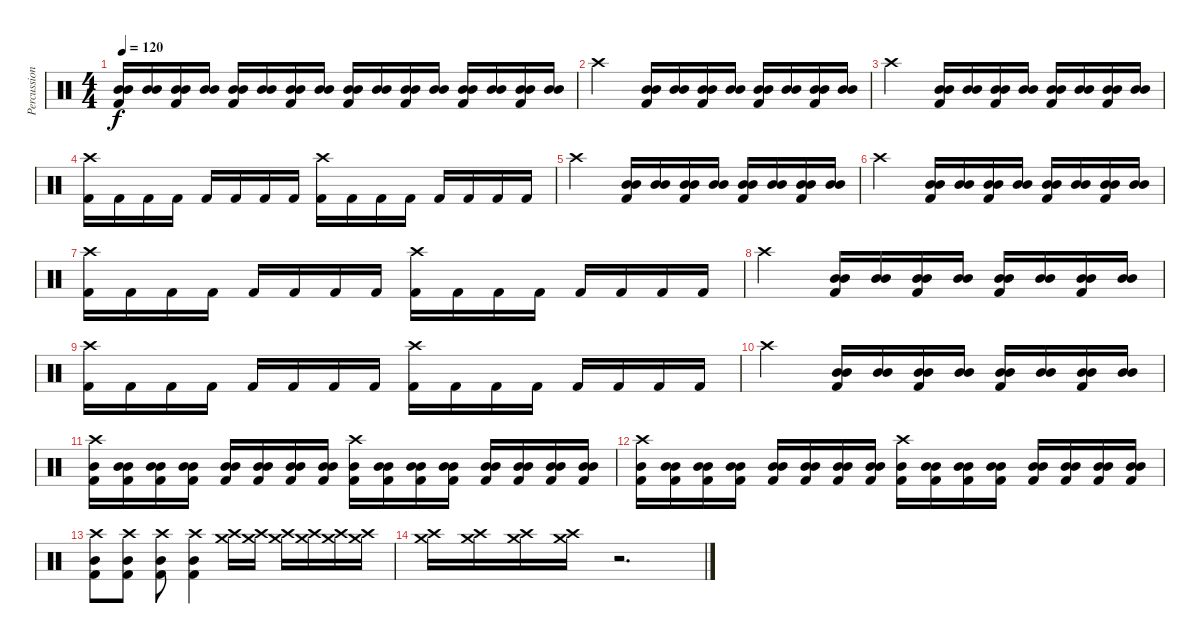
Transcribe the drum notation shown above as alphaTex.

\track ("Percussion" "Percussion") {instrument percussion}
\staff {score}
\articulation defaults
\ts (4 4)
\tempo 120
\clef neutral
\ks c
("Mid Tom (hit)" "Mid Tom (hit)" "Kick (hit) 2").16{dy f} ("Mid Tom (hit)" "Mid Tom (hit)").16 ("Mid Tom (hit)" "Mid Tom (hit)" "Kick (hit) 2").16 ("Mid Tom (hit)" "Mid Tom (hit)").16 ("Mid Tom (hit)" "Mid Tom (hit)" "Kick (hit) 2").16 ("Mid Tom (hit)" "Mid Tom (hit)").16 ("Mid Tom (hit)" "Mid Tom (hit)" "Kick (hit) 2").16 ("Mid Tom (hit)" "Mid Tom (hit)").16 ("Mid Tom (hit)" "Mid Tom (hit)" "Kick (hit) 2").16 ("Mid Tom (hit)" "Mid Tom (hit)").16 ("Mid Tom (hit)" "Mid Tom (hit)" "Kick (hit) 2").16 ("Mid Tom (hit)" "Mid Tom (hit)").16 ("Mid Tom (hit)" "Mid Tom (hit)" "Kick (hit) 2").16 ("Mid Tom (hit)" "Mid Tom (hit)").16 ("Mid Tom (hit)" "Mid Tom (hit)" "Kick (hit) 2").16 ("Mid Tom (hit)" "Mid Tom (hit)").16 |
"Crash high (hit)".2 ("Mid Tom (hit)" "Mid Tom (hit)" "Kick (hit) 2").16 ("Mid Tom (hit)" "Mid Tom (hit)").16 ("Mid Tom (hit)" "Mid Tom (hit)" "Kick (hit) 2").16 ("Mid Tom (hit)" "Mid Tom (hit)").16 ("Mid Tom (hit)" "Mid Tom (hit)" "Kick (hit) 2").16 ("Mid Tom (hit)" "Mid Tom (hit)").16 ("Mid Tom (hit)" "Mid Tom (hit)" "Kick (hit) 2").16 ("Mid Tom (hit)" "Mid Tom (hit)").16 |
"Crash high (hit)".2 ("Mid Tom (hit)" "Mid Tom (hit)" "Kick (hit) 2").16 ("Mid Tom (hit)" "Mid Tom (hit)").16 ("Mid Tom (hit)" "Mid Tom (hit)" "Kick (hit) 2").16 ("Mid Tom (hit)" "Mid Tom (hit)").16 ("Mid Tom (hit)" "Mid Tom (hit)" "Kick (hit) 2").16 ("Mid Tom (hit)" "Mid Tom (hit)").16 ("Mid Tom (hit)" "Mid Tom (hit)" "Kick (hit) 2").16 ("Mid Tom (hit)" "Mid Tom (hit)").16 |
("Crash high (hit)" "Kick (hit) 2").16 "Kick (hit) 2".16 "Kick (hit) 2".16 "Kick (hit) 2".16 "Kick (hit) 2".16 "Kick (hit) 2".16 "Kick (hit) 2".16 "Kick (hit) 2".16 ("Crash high (hit)" "Kick (hit) 2").16 "Kick (hit) 2".16 "Kick (hit) 2".16 "Kick (hit) 2".16 "Kick (hit) 2".16 "Kick (hit) 2".16 "Kick (hit) 2".16 "Kick (hit) 2".16 |
"Crash high (hit)".2 ("Mid Tom (hit)" "Mid Tom (hit)" "Kick (hit) 2").16 ("Mid Tom (hit)" "Mid Tom (hit)").16 ("Mid Tom (hit)" "Mid Tom (hit)" "Kick (hit) 2").16 ("Mid Tom (hit)" "Mid Tom (hit)").16 ("Mid Tom (hit)" "Mid Tom (hit)" "Kick (hit) 2").16 ("Mid Tom (hit)" "Mid Tom (hit)").16 ("Mid Tom (hit)" "Mid Tom (hit)" "Kick (hit) 2").16 ("Mid Tom (hit)" "Mid Tom (hit)").16 |
"Crash high (hit)".2 ("Mid Tom (hit)" "Mid Tom (hit)" "Kick (hit) 2").16 ("Mid Tom (hit)" "Mid Tom (hit)").16 ("Mid Tom (hit)" "Mid Tom (hit)" "Kick (hit) 2").16 ("Mid Tom (hit)" "Mid Tom (hit)").16 ("Mid Tom (hit)" "Mid Tom (hit)" "Kick (hit) 2").16 ("Mid Tom (hit)" "Mid Tom (hit)").16 ("Mid Tom (hit)" "Mid Tom (hit)" "Kick (hit) 2").16 ("Mid Tom (hit)" "Mid Tom (hit)").16 |
("Crash high (hit)" "Kick (hit) 2").16 "Kick (hit) 2".16 "Kick (hit) 2".16 "Kick (hit) 2".16 "Kick (hit) 2".16 "Kick (hit) 2".16 "Kick (hit) 2".16 "Kick (hit) 2".16 ("Crash high (hit)" "Kick (hit) 2").16 "Kick (hit) 2".16 "Kick (hit) 2".16 "Kick (hit) 2".16 "Kick (hit) 2".16 "Kick (hit) 2".16 "Kick (hit) 2".16 "Kick (hit) 2".16 |
"Crash high (hit)".2 ("Mid Tom (hit)" "Mid Tom (hit)" "Kick (hit) 2").16 ("Mid Tom (hit)" "Mid Tom (hit)").16 ("Mid Tom (hit)" "Mid Tom (hit)" "Kick (hit) 2").16 ("Mid Tom (hit)" "Mid Tom (hit)").16 ("Mid Tom (hit)" "Mid Tom (hit)" "Kick (hit) 2").16 ("Mid Tom (hit)" "Mid Tom (hit)").16 ("Mid Tom (hit)" "Mid Tom (hit)" "Kick (hit) 2").16 ("Mid Tom (hit)" "Mid Tom (hit)").16 |
("Crash high (hit)" "Kick (hit) 2").16 "Kick (hit) 2".16 "Kick (hit) 2".16 "Kick (hit) 2".16 "Kick (hit) 2".16 "Kick (hit) 2".16 "Kick (hit) 2".16 "Kick (hit) 2".16 ("Crash high (hit)" "Kick (hit) 2").16 "Kick (hit) 2".16 "Kick (hit) 2".16 "Kick (hit) 2".16 "Kick (hit) 2".16 "Kick (hit) 2".16 "Kick (hit) 2".16 "Kick (hit) 2".16 |
"Crash high (hit)".2 ("Mid Tom (hit)" "Mid Tom (hit)" "Kick (hit) 2").16 ("Mid Tom (hit)" "Mid Tom (hit)").16 ("Mid Tom (hit)" "Mid Tom (hit)" "Kick (hit) 2").16 ("Mid Tom (hit)" "Mid Tom (hit)").16 ("Mid Tom (hit)" "Mid Tom (hit)" "Kick (hit) 2").16 ("Mid Tom (hit)" "Mid Tom (hit)").16 ("Mid Tom (hit)" "Mid Tom (hit)" "Kick (hit) 2").16 ("Mid Tom (hit)" "Mid Tom (hit)").16 |
("Crash high (hit)" "Mid Tom (hit)" "Kick (hit) 2").16 ("Mid Tom (hit)" "Mid Tom (hit)" "Kick (hit) 2").16 ("Mid Tom (hit)" "Mid Tom (hit)" "Kick (hit) 2").16 ("Mid Tom (hit)" "Mid Tom (hit)" "Kick (hit) 2").16 ("Mid Tom (hit)" "Mid Tom (hit)" "Kick (hit) 2").16 ("Mid Tom (hit)" "Mid Tom (hit)" "Kick (hit) 2").16 ("Mid Tom (hit)" "Mid Tom (hit)" "Kick (hit) 2").16 ("Mid Tom (hit)" "Mid Tom (hit)" "Kick (hit) 2").16 ("Crash high (hit)" "Mid Tom (hit)" "Kick (hit) 2").16 ("Mid Tom (hit)" "Mid Tom (hit)" "Kick (hit) 2").16 ("Mid Tom (hit)" "Mid Tom (hit)" "Kick (hit) 2").16 ("Mid Tom (hit)" "Mid Tom (hit)" "Kick (hit) 2").16 ("Mid Tom (hit)" "Mid Tom (hit)" "Kick (hit) 2").16 ("Mid Tom (hit)" "Mid Tom (hit)" "Kick (hit) 2").16 ("Mid Tom (hit)" "Mid Tom (hit)" "Kick (hit) 2").16 ("Mid Tom (hit)" "Mid Tom (hit)" "Kick (hit) 2").16 |
("Crash high (hit)" "Mid Tom (hit)" "Kick (hit) 2").16 ("Mid Tom (hit)" "Mid Tom (hit)" "Kick (hit) 2").16 ("Mid Tom (hit)" "Mid Tom (hit)" "Kick (hit) 2").16 ("Mid Tom (hit)" "Mid Tom (hit)" "Kick (hit) 2").16 ("Mid Tom (hit)" "Mid Tom (hit)" "Kick (hit) 2").16 ("Mid Tom (hit)" "Mid Tom (hit)" "Kick (hit) 2").16 ("Mid Tom (hit)" "Mid Tom (hit)" "Kick (hit) 2").16 ("Mid Tom (hit)" "Mid Tom (hit)" "Kick (hit) 2").16 ("Crash high (hit)" "Mid Tom (hit)" "Kick (hit) 2").16 ("Mid Tom (hit)" "Mid Tom (hit)" "Kick (hit) 2").16 ("Mid Tom (hit)" "Mid Tom (hit)" "Kick (hit) 2").16 ("Mid Tom (hit)" "Mid Tom (hit)" "Kick (hit) 2").16 ("Mid Tom (hit)" "Mid Tom (hit)" "Kick (hit) 2").16 ("Mid Tom (hit)" "Mid Tom (hit)" "Kick (hit) 2").16 ("Mid Tom (hit)" "Mid Tom (hit)" "Kick (hit) 2").16 ("Mid Tom (hit)" "Mid Tom (hit)" "Kick (hit) 2").16 |
("Crash high (hit)" "Mid Tom (hit)" "Kick (hit) 2").8 ("Crash high (hit)" "Mid Tom (hit)" "Kick (hit) 2").8 ("Crash high (hit)" "Mid Tom (hit)" "Kick (hit) 2").8 ("Crash high (hit)" "Mid Tom (hit)" "Kick (hit) 2").4 ("Crash high (hit)" "Crash medium (hit)").16 ("Crash high (hit)" "Crash medium (hit)").16 ("Crash high (hit)" "Crash medium (hit)").16 ("Crash high (hit)" "Crash medium (hit)").16 ("Crash high (hit)" "Crash medium (hit)").16 ("Crash high (hit)" "Crash medium (hit)").16 |
("Crash high (hit)" "Crash medium (hit)").16 ("Crash high (hit)" "Crash medium (hit)").16 ("Crash high (hit)" "Crash medium (hit)").16 ("Crash high (hit)" "Crash medium (hit)").16 r.2{d}
